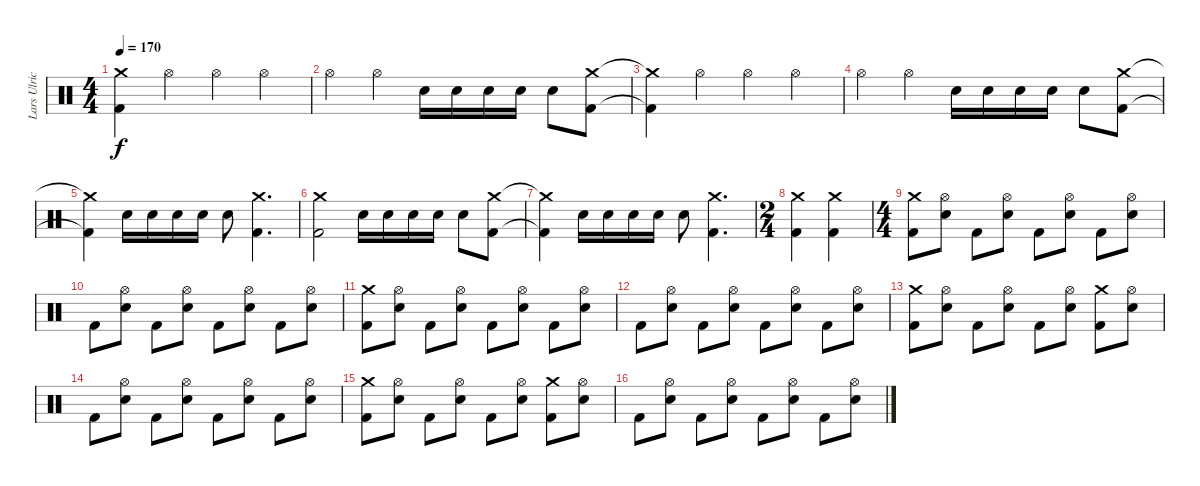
\track ("Lars Ulrich" "Lars Ulric") {instrument percussion}
\staff {score}
\articulation defaults
\ts (4 4)
\tempo 170
\clef neutral
\ks c
("Crash medium (hit)" "Kick (hit) 2").4{dy f} "Hi-Hat (open)".4 "Hi-Hat (open)".4 "Hi-Hat (open)".4 |
"Hi-Hat (open)".4 "Hi-Hat (open)".4 "Electric Snare (hit)".16 "Electric Snare (hit)".16 "Electric Snare (hit)".16 "Electric Snare (hit)".16 "Electric Snare (hit)".8 ("Crash medium (hit)" "Kick (hit) 2").8 |
("Crash medium (hit)"{t} "Kick (hit) 2"{t}).4 "Hi-Hat (open)".4 "Hi-Hat (open)".4 "Hi-Hat (open)".4 |
"Hi-Hat (open)".4 "Hi-Hat (open)".4 "Electric Snare (hit)".16 "Electric Snare (hit)".16 "Electric Snare (hit)".16 "Electric Snare (hit)".16 "Electric Snare (hit)".8 ("Crash medium (hit)" "Kick (hit) 2").8 |
("Crash medium (hit)"{t} "Kick (hit) 2"{t}).4 "Electric Snare (hit)".16 "Electric Snare (hit)".16 "Electric Snare (hit)".16 "Electric Snare (hit)".16 "Electric Snare (hit)".8 ("Crash medium (hit)" "Kick (hit) 2").4{d} |
("Crash medium (hit)" "Kick (hit) 2").2 "Electric Snare (hit)".16 "Electric Snare (hit)".16 "Electric Snare (hit)".16 "Electric Snare (hit)".16 "Electric Snare (hit)".8 ("Crash medium (hit)" "Kick (hit) 2").8 |
("Crash medium (hit)"{t} "Kick (hit) 2"{t}).4 "Electric Snare (hit)".16 "Electric Snare (hit)".16 "Electric Snare (hit)".16 "Electric Snare (hit)".16 "Electric Snare (hit)".8 ("Crash medium (hit)" "Kick (hit) 2").4{d} |
\ts (2 4)
("Crash medium (hit)" "Kick (hit) 2").4 ("Crash medium (hit)" "Kick (hit) 2").4 |
\ts (4 4)
("Crash medium (hit)" "Kick (hit) 2").8 ("Hi-Hat (open)" "Electric Snare (hit)").8 "Kick (hit) 2".8 ("Hi-Hat (open)" "Electric Snare (hit)").8 "Kick (hit) 2".8 ("Hi-Hat (open)" "Electric Snare (hit)").8 "Kick (hit) 2".8 ("Hi-Hat (open)" "Electric Snare (hit)").8 |
"Kick (hit) 2".8 ("Hi-Hat (open)" "Electric Snare (hit)").8 "Kick (hit) 2".8 ("Hi-Hat (open)" "Electric Snare (hit)").8 "Kick (hit) 2".8 ("Hi-Hat (open)" "Electric Snare (hit)").8 "Kick (hit) 2".8 ("Hi-Hat (open)" "Electric Snare (hit)").8 |
("Crash medium (hit)" "Kick (hit) 2").8 ("Hi-Hat (open)" "Electric Snare (hit)").8 "Kick (hit) 2".8 ("Hi-Hat (open)" "Electric Snare (hit)").8 "Kick (hit) 2".8 ("Hi-Hat (open)" "Electric Snare (hit)").8 "Kick (hit) 2".8 ("Hi-Hat (open)" "Electric Snare (hit)").8 |
"Kick (hit) 2".8 ("Hi-Hat (open)" "Electric Snare (hit)").8 "Kick (hit) 2".8 ("Hi-Hat (open)" "Electric Snare (hit)").8 "Kick (hit) 2".8 ("Hi-Hat (open)" "Electric Snare (hit)").8 "Kick (hit) 2".8 ("Hi-Hat (open)" "Electric Snare (hit)").8 |
("Crash medium (hit)" "Kick (hit) 2").8 ("Hi-Hat (open)" "Electric Snare (hit)").8 "Kick (hit) 2".8 ("Hi-Hat (open)" "Electric Snare (hit)").8 "Kick (hit) 2".8 ("Hi-Hat (open)" "Electric Snare (hit)").8 ("Crash medium (hit)" "Kick (hit) 2").8 ("Hi-Hat (open)" "Electric Snare (hit)").8 |
"Kick (hit) 2".8 ("Hi-Hat (open)" "Electric Snare (hit)").8 "Kick (hit) 2".8 ("Hi-Hat (open)" "Electric Snare (hit)").8 "Kick (hit) 2".8 ("Hi-Hat (open)" "Electric Snare (hit)").8 "Kick (hit) 2".8 ("Hi-Hat (open)" "Electric Snare (hit)").8 |
("Crash medium (hit)" "Kick (hit) 2").8 ("Hi-Hat (open)" "Electric Snare (hit)").8 "Kick (hit) 2".8 ("Hi-Hat (open)" "Electric Snare (hit)").8 "Kick (hit) 2".8 ("Hi-Hat (open)" "Electric Snare (hit)").8 ("Crash medium (hit)" "Kick (hit) 2").8 ("Hi-Hat (open)" "Electric Snare (hit)").8 |
"Kick (hit) 2".8 ("Hi-Hat (open)" "Electric Snare (hit)").8 "Kick (hit) 2".8 ("Hi-Hat (open)" "Electric Snare (hit)").8 "Kick (hit) 2".8 ("Hi-Hat (open)" "Electric Snare (hit)").8 "Kick (hit) 2".8 ("Hi-Hat (open)" "Electric Snare (hit)").8
